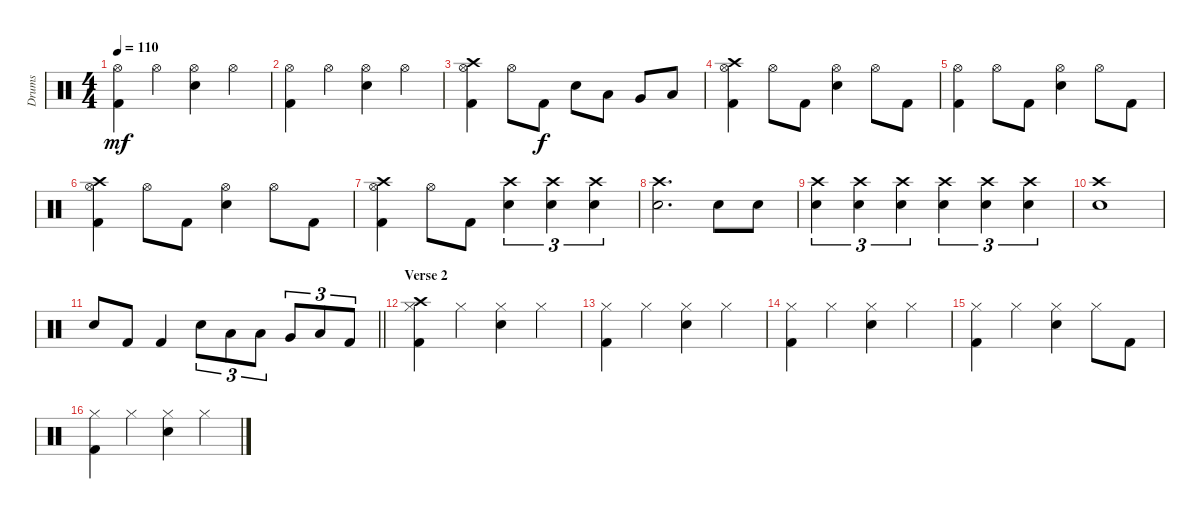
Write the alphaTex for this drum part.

\track ("Drums" "Drums") {instrument percussion}
\staff {score}
\articulation defaults
\ts (4 4)
\tempo 110
\clef neutral
\ks c
("Kick (hit) 2" "Hi-Hat (open)").4{dy mf} "Hi-Hat (open)".4 ("Snare (hit) 2" "Hi-Hat (open)").4 "Hi-Hat (open)".4 |
("Kick (hit) 2" "Hi-Hat (open)").4 "Hi-Hat (open)".4 ("Snare (hit) 2" "Hi-Hat (open)").4 "Hi-Hat (open)".4 |
("Kick (hit) 2" "Hi-Hat (open)" "Crash high (hit)").4 "Hi-Hat (open)".8 "Kick (hit) 2".8{dy f} "Snare (hit) 2".8 "Low Tom (hit)".8 "Very Low Tom (hit)".8 "Low Floor Tom (hit)".8 |
("Kick (hit) 2" "Hi-Hat (open)" "Crash high (hit)").4 "Hi-Hat (open)".8 "Kick (hit) 2".8 ("Snare (hit) 2" "Hi-Hat (open)").4 "Hi-Hat (open)".8 "Kick (hit) 2".8 |
("Kick (hit) 2" "Hi-Hat (open)").4 "Hi-Hat (open)".8 "Kick (hit) 2".8 ("Snare (hit) 2" "Hi-Hat (open)").4 "Hi-Hat (open)".8 "Kick (hit) 2".8 |
("Kick (hit) 2" "Hi-Hat (open)" "Crash high (hit)").4 "Hi-Hat (open)".8 "Kick (hit) 2".8 ("Snare (hit) 2" "Hi-Hat (open)").4 "Hi-Hat (open)".8 "Kick (hit) 2".8 |
("Kick (hit) 2" "Hi-Hat (open)" "Crash high (hit)").4 "Hi-Hat (open)".8 "Kick (hit) 2".8 ("Snare (hit) 2" "Crash high (hit)").4{tu (3 2)} ("Snare (hit) 2" "Crash high (hit)").4{tu (3 2)} ("Snare (hit) 2" "Crash high (hit)").4{tu (3 2)} |
("Snare (hit) 2" "Crash high (hit)").2{d} "Snare (hit) 2".8 "Snare (hit) 2".8 |
("Snare (hit) 2" "Crash high (hit)").4{tu (3 2)} ("Snare (hit) 2" "Crash high (hit)").4{tu (3 2)} ("Snare (hit) 2" "Crash high (hit)").4{tu (3 2)} ("Snare (hit) 2" "Crash high (hit)").4{tu (3 2)} ("Snare (hit) 2" "Crash high (hit)").4{tu (3 2)} ("Snare (hit) 2" "Crash high (hit)").4{tu (3 2)} |
("Snare (hit) 2" "Crash high (hit)").1 |
\barLineRight lightlight "Snare (hit) 2".8 "Kick (hit) 2".8 "Kick (hit) 2".4 "Snare (hit) 2".8{tu (3 2)} "Low Tom (hit)".8{tu (3 2)} "Low Tom (hit)".8{tu (3 2)} "Very Low Tom (hit)".8{tu (3 2)} "Low Floor Tom (hit)".8{tu (3 2)} "Kick (hit) 2".8{tu (3 2)}
|
\section ("" "Verse 2")
("Kick (hit) 2" "Hi-Hat (closed)" "Crash high (hit)").4 "Hi-Hat (closed)".4 ("Snare (hit) 2" "Hi-Hat (closed)").4 "Hi-Hat (closed)".4 |
("Kick (hit) 2" "Hi-Hat (closed)").4 "Hi-Hat (closed)".4 ("Snare (hit) 2" "Hi-Hat (closed)").4 "Hi-Hat (closed)".4 |
("Kick (hit) 2" "Hi-Hat (closed)").4 "Hi-Hat (closed)".4 ("Snare (hit) 2" "Hi-Hat (closed)").4 "Hi-Hat (closed)".4 |
("Kick (hit) 2" "Hi-Hat (closed)").4 "Hi-Hat (closed)".4 ("Snare (hit) 2" "Hi-Hat (closed)").4 "Hi-Hat (closed)".8 "Kick (hit) 2".8 |
("Kick (hit) 2" "Hi-Hat (closed)").4 "Hi-Hat (closed)".4 ("Snare (hit) 2" "Hi-Hat (closed)").4 "Hi-Hat (closed)".4
